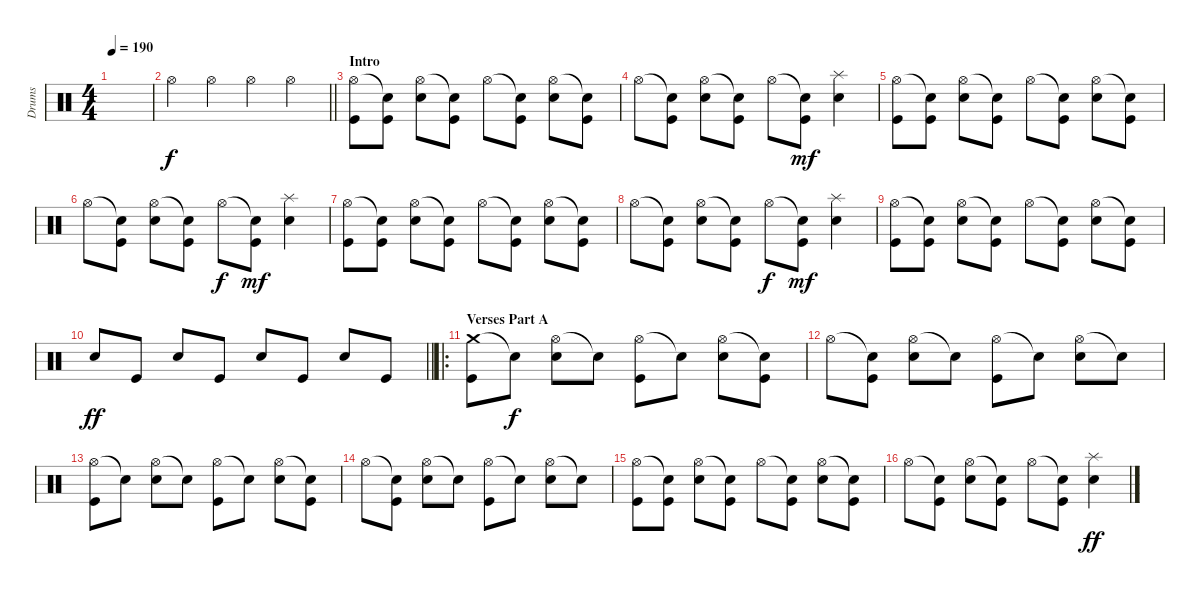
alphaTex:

\track ("Drums" "Drums") {instrument percussion}
\staff {score}
\articulation defaults
\ts (4 4)
\tempo 190
\clef neutral
\ks c
|
\barLineRight lightlight "Hi-Hat (open)".4 "Hi-Hat (open)".4 "Hi-Hat (open)".4 "Hi-Hat (open)".4
|
\section ("" "Intro")
("Hi-Hat (open)" "Kick (hit)").8 ("Snare (hit)"{t} "Kick (hit)").8 ("Hi-Hat (open)" "Snare (hit) 2").8 ("Snare (hit)"{t} "Kick (hit)").8 "Hi-Hat (open)".8 ("Snare (hit)"{t} "Kick (hit)").8 ("Hi-Hat (open)" "Snare (hit) 2").8 ("Snare (hit)"{t} "Kick (hit)").8 |
"Hi-Hat (open)".8 ("Snare (hit)"{t} "Kick (hit)").8 ("Hi-Hat (open)" "Snare (hit) 2").8 ("Snare (hit)"{t} "Kick (hit)").8 "Hi-Hat (open)".8{dy f} ("Snare (hit)"{t} "Kick (hit)").8{dy mf} ("Splash (hit)" "Snare (hit) 2").4 |
("Hi-Hat (open)" "Kick (hit)").8 ("Snare (hit)"{t} "Kick (hit)").8 ("Hi-Hat (open)" "Snare (hit) 2").8 ("Snare (hit)"{t} "Kick (hit)").8 "Hi-Hat (open)".8 ("Snare (hit)"{t} "Kick (hit)").8 ("Hi-Hat (open)" "Snare (hit) 2").8 ("Snare (hit)"{t} "Kick (hit)").8 |
"Hi-Hat (open)".8 ("Snare (hit)"{t} "Kick (hit)").8 ("Hi-Hat (open)" "Snare (hit) 2").8 ("Snare (hit)"{t} "Kick (hit)").8 "Hi-Hat (open)".8{dy f} ("Snare (hit)"{t} "Kick (hit)").8{dy mf} ("Splash (hit)" "Snare (hit) 2").4 |
("Hi-Hat (open)" "Kick (hit)").8 ("Snare (hit)"{t} "Kick (hit)").8 ("Hi-Hat (open)" "Snare (hit) 2").8 ("Snare (hit)"{t} "Kick (hit)").8 "Hi-Hat (open)".8 ("Snare (hit)"{t} "Kick (hit)").8 ("Hi-Hat (open)" "Snare (hit) 2").8 ("Snare (hit)"{t} "Kick (hit)").8 |
"Hi-Hat (open)".8 ("Snare (hit)"{t} "Kick (hit)").8 ("Hi-Hat (open)" "Snare (hit) 2").8 ("Snare (hit)"{t} "Kick (hit)").8 "Hi-Hat (open)".8{dy f} ("Snare (hit)"{t} "Kick (hit)").8{dy mf} ("Splash (hit)" "Snare (hit) 2").4 |
("Hi-Hat (open)" "Kick (hit)").8 ("Snare (hit)"{t} "Kick (hit)").8 ("Hi-Hat (open)" "Snare (hit) 2").8 ("Snare (hit)"{t} "Kick (hit)").8 "Hi-Hat (open)".8 ("Snare (hit)"{t} "Kick (hit)").8 ("Hi-Hat (open)" "Snare (hit) 2").8 ("Snare (hit)"{t} "Kick (hit)").8 |
\barLineRight lightlight "Snare (hit) 2".8{dy ff} "Kick (hit)".8 "Snare (hit) 2".8 "Kick (hit)".8 "Snare (hit) 2".8 "Kick (hit)".8 "Snare (hit) 2".8 "Kick (hit)".8
|
\ro
\section ("" "Verses Part A")
("Crash medium (hit)" "Kick (hit)").8 "Snare (hit)"{t}.8{dy f} ("Hi-Hat (open)" "Snare (hit) 2").8 "Snare (hit)"{t}.8 ("Hi-Hat (open)" "Kick (hit)").8 "Snare (hit)"{t}.8 ("Hi-Hat (open)" "Snare (hit) 2").8 ("Snare (hit)"{t} "Kick (hit)").8 |
"Hi-Hat (open)".8 ("Snare (hit)"{t} "Kick (hit)").8 ("Hi-Hat (open)" "Snare (hit) 2").8 "Snare (hit)"{t}.8 ("Hi-Hat (open)" "Kick (hit)").8 "Snare (hit)"{t}.8 ("Hi-Hat (open)" "Snare (hit) 2").8 "Snare (hit)"{t}.8 |
("Hi-Hat (open)" "Kick (hit)").8 "Snare (hit)"{t}.8 ("Hi-Hat (open)" "Snare (hit) 2").8 "Snare (hit)"{t}.8 ("Hi-Hat (open)" "Kick (hit)").8 "Snare (hit)"{t}.8 ("Hi-Hat (open)" "Snare (hit) 2").8 ("Snare (hit)"{t} "Kick (hit)").8 |
"Hi-Hat (open)".8 ("Snare (hit)"{t} "Kick (hit)").8 ("Hi-Hat (open)" "Snare (hit) 2").8 "Snare (hit)"{t}.8 ("Hi-Hat (open)" "Kick (hit)").8 "Snare (hit)"{t}.8 ("Hi-Hat (open)" "Snare (hit) 2").8 "Snare (hit)"{t}.8 |
("Hi-Hat (open)" "Kick (hit)").8 ("Snare (hit)"{t} "Kick (hit)").8 ("Hi-Hat (open)" "Snare (hit) 2").8 ("Snare (hit)"{t} "Kick (hit)").8 "Hi-Hat (open)".8 ("Snare (hit)"{t} "Kick (hit)").8 ("Hi-Hat (open)" "Snare (hit) 2").8 ("Snare (hit)"{t} "Kick (hit)").8 |
"Hi-Hat (open)".8 ("Snare (hit)"{t} "Kick (hit)").8 ("Hi-Hat (open)" "Snare (hit) 2").8 ("Snare (hit)"{t} "Kick (hit)").8 "Hi-Hat (open)".8 ("Snare (hit)"{t} "Kick (hit)").8 ("Splash (hit)" "Snare (hit) 2").4{dy ff}
